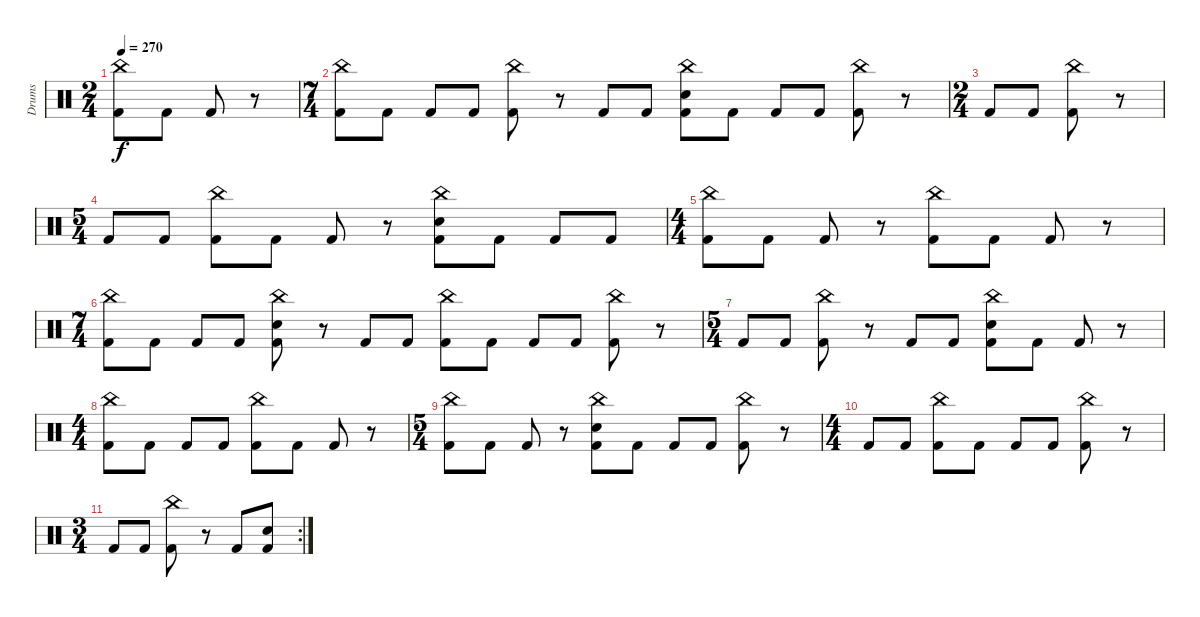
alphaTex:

\track ("Drums" "Drums") {instrument percussion}
\staff {score}
\articulation defaults
\ts (2 4)
\tempo 270
\clef neutral
\ks c
("China (hit)" "Kick (hit) 2").8{dy f} "Kick (hit) 2".8 "Kick (hit) 2".8 r.8 |
\ts (7 4)
("China (hit)" "Kick (hit) 2").8 "Kick (hit) 2".8 "Kick (hit) 2".8 "Kick (hit) 2".8 ("China (hit)" "Kick (hit) 2").8 r.8 "Kick (hit) 2".8 "Kick (hit) 2".8 ("China (hit)" "Electric Snare (hit)" "Kick (hit) 2").8 "Kick (hit) 2".8 "Kick (hit) 2".8 "Kick (hit) 2".8 ("China (hit)" "Kick (hit) 2").8 r.8 |
\ts (2 4)
"Kick (hit) 2".8 "Kick (hit) 2".8 ("China (hit)" "Kick (hit) 2").8 r.8 |
\ts (5 4)
"Kick (hit) 2".8 "Kick (hit) 2".8 ("China (hit)" "Kick (hit) 2").8 "Kick (hit) 2".8 "Kick (hit) 2".8 r.8 ("China (hit)" "Electric Snare (hit)" "Kick (hit) 2").8 "Kick (hit) 2".8 "Kick (hit) 2".8 "Kick (hit) 2".8 |
\ts (4 4)
("China (hit)" "Kick (hit) 2").8 "Kick (hit) 2".8 "Kick (hit) 2".8 r.8 ("China (hit)" "Kick (hit) 2").8 "Kick (hit) 2".8 "Kick (hit) 2".8 r.8 |
\ts (7 4)
("China (hit)" "Kick (hit) 2").8 "Kick (hit) 2".8 "Kick (hit) 2".8 "Kick (hit) 2".8 ("China (hit)" "Electric Snare (hit)" "Kick (hit) 2").8 r.8 "Kick (hit) 2".8 "Kick (hit) 2".8 ("China (hit)" "Kick (hit) 2").8 "Kick (hit) 2".8 "Kick (hit) 2".8 "Kick (hit) 2".8 ("China (hit)" "Kick (hit) 2").8 r.8 |
\ts (5 4)
"Kick (hit) 2".8 "Kick (hit) 2".8 ("China (hit)" "Kick (hit) 2").8 r.8 "Kick (hit) 2".8 "Kick (hit) 2".8 ("China (hit)" "Electric Snare (hit)" "Kick (hit) 2").8 "Kick (hit) 2".8 "Kick (hit) 2".8 r.8 |
\ts (4 4)
("China (hit)" "Kick (hit) 2").8 "Kick (hit) 2".8 "Kick (hit) 2".8 "Kick (hit) 2".8 ("China (hit)" "Kick (hit) 2").8 "Kick (hit) 2".8 "Kick (hit) 2".8 r.8 |
\ts (5 4)
("China (hit)" "Kick (hit) 2").8 "Kick (hit) 2".8 "Kick (hit) 2".8 r.8 ("China (hit)" "Electric Snare (hit)" "Kick (hit) 2").8 "Kick (hit) 2".8 "Kick (hit) 2".8 "Kick (hit) 2".8 ("China (hit)" "Kick (hit) 2").8 r.8 |
\ts (4 4)
"Kick (hit) 2".8 "Kick (hit) 2".8 ("China (hit)" "Kick (hit) 2").8 "Kick (hit) 2".8 "Kick (hit) 2".8 "Kick (hit) 2".8 ("China (hit)" "Kick (hit) 2").8 r.8 |
\rc 2
\ts (3 4)
"Kick (hit) 2".8 "Kick (hit) 2".8 ("China (hit)" "Kick (hit) 2").8 r.8 "Kick (hit) 2".8 ("Electric Snare (hit)" "Kick (hit) 2").8
